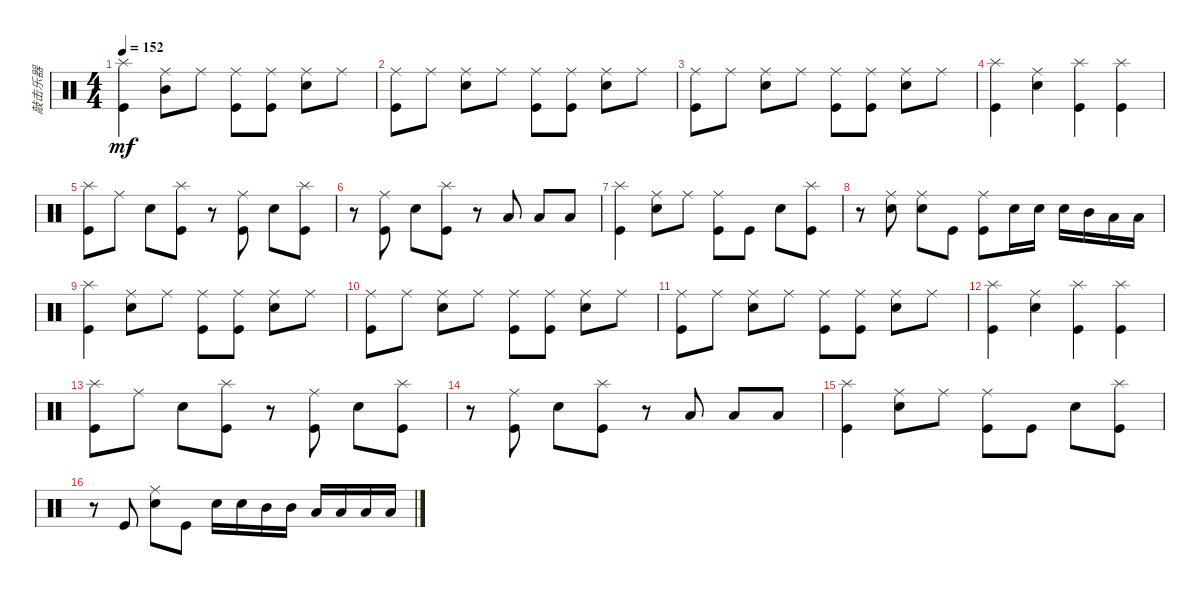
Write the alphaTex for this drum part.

\track ("敲击乐器" "敲击乐器") {instrument percussion}
\staff {score}
\articulation defaults
\ts (4 4)
\tempo 152
\clef neutral
\ks c
("Splash (hit)" "Kick (hit)").4{dy mf} ("Ride (middle)" "Mid Tom (hit)").8 "Ride (middle)".8 ("Ride (middle)" "Kick (hit)").8 ("Ride (middle)" "Kick (hit)").8 ("Ride (middle)" "Snare (hit) 2").8 "Ride (middle)".8 |
("Ride (middle)" "Kick (hit)").8 "Ride (middle)".8 ("Ride (middle)" "Snare (hit) 2").8 "Ride (middle)".8 ("Ride (middle)" "Kick (hit)").8 ("Ride (middle)" "Kick (hit)").8 ("Ride (middle)" "Snare (hit) 2").8 "Ride (middle)".8 |
("Ride (middle)" "Kick (hit)").8 "Ride (middle)".8 ("Ride (middle)" "Snare (hit) 2").8 "Ride (middle)".8 ("Ride (middle)" "Kick (hit)").8 ("Ride (middle)" "Kick (hit)").8 ("Ride (middle)" "Snare (hit) 2").8 "Ride (middle)".8 |
("Splash (hit)" "Kick (hit)").4 ("Ride (middle)" "Snare (hit) 2").4 ("Splash (hit)" "Kick (hit)").4 ("Splash (hit)" "Kick (hit)").4 |
("Splash (hit)" "Kick (hit)").8 "Ride (middle)".8 "Snare (hit) 2".8 ("Splash (hit)" "Kick (hit)").8 r.8 ("Ride (middle)" "Kick (hit)").8 "Snare (hit) 2".8 ("Splash (hit)" "Kick (hit)").8 |
r.8 ("Ride (middle)" "Kick (hit)").8 "Snare (hit) 2".8 ("Splash (hit)" "Kick (hit)").8 r.8 "Low Tom (hit)".8 "Low Tom (hit)".8 "Low Floor Tom (hit)".8 |
("Splash (hit)" "Kick (hit)").4 ("Ride (middle)" "Snare (hit) 2").8 "Ride (middle)".8 ("Ride (middle)" "Kick (hit)").8 "Kick (hit)".8 "Snare (hit) 2".8 ("Splash (hit)" "Kick (hit)").8 |
r.8 ("Ride (middle)" "Snare (hit) 2").8 ("Ride (middle)" "Snare (hit) 2").8 "Kick (hit)".8 ("Ride (middle)" "Kick (hit)").8 "Snare (hit) 2".16 "Snare (hit) 2".16 "Snare (hit) 2".16 "Mid Tom (hit)".16 "Low Tom (hit)".16 "Low Floor Tom (hit)".16 |
("Splash (hit)" "Kick (hit)").4 ("Ride (middle)" "Snare (hit) 2").8 "Ride (middle)".8 ("Ride (middle)" "Kick (hit)").8 ("Ride (middle)" "Kick (hit)").8 ("Ride (middle)" "Snare (hit) 2").8 "Ride (middle)".8 |
("Ride (middle)" "Kick (hit)").8 "Ride (middle)".8 ("Ride (middle)" "Snare (hit) 2").8 "Ride (middle)".8 ("Ride (middle)" "Kick (hit)").8 ("Ride (middle)" "Kick (hit)").8 ("Ride (middle)" "Snare (hit) 2").8 "Ride (middle)".8 |
("Ride (middle)" "Kick (hit)").8 "Ride (middle)".8 ("Ride (middle)" "Snare (hit) 2").8 "Ride (middle)".8 ("Ride (middle)" "Kick (hit)").8 ("Ride (middle)" "Kick (hit)").8 ("Ride (middle)" "Snare (hit) 2").8 "Ride (middle)".8 |
("Splash (hit)" "Kick (hit)").4 ("Ride (middle)" "Snare (hit) 2").4 ("Splash (hit)" "Kick (hit)").4 ("Splash (hit)" "Kick (hit)").4 |
("Splash (hit)" "Kick (hit)").8 "Ride (middle)".8 "Snare (hit) 2".8 ("Splash (hit)" "Kick (hit)").8 r.8 ("Ride (middle)" "Kick (hit)").8 "Snare (hit) 2".8 ("Splash (hit)" "Kick (hit)").8 |
r.8 ("Ride (middle)" "Kick (hit)").8 "Snare (hit) 2".8 ("Splash (hit)" "Kick (hit)").8 r.8 "Low Tom (hit)".8 "Low Tom (hit)".8 "Low Floor Tom (hit)".8 |
("Splash (hit)" "Kick (hit)").4 ("Ride (middle)" "Snare (hit) 2").8 "Ride (middle)".8 ("Ride (middle)" "Kick (hit)").8 "Kick (hit)".8 "Snare (hit) 2".8 ("Splash (hit)" "Kick (hit)").8 |
r.8 "Kick (hit)".8 ("Ride (middle)" "Snare (hit) 2").8 "Kick (hit)".8 "Snare (hit) 2".16 "Snare (hit) 2".16 "Mid Tom (hit)".16 "Mid Tom (hit)".16 "Low Tom (hit)".16 "Low Tom (hit)".16 "Low Floor Tom (hit)".16 "Low Floor Tom (hit)".16
